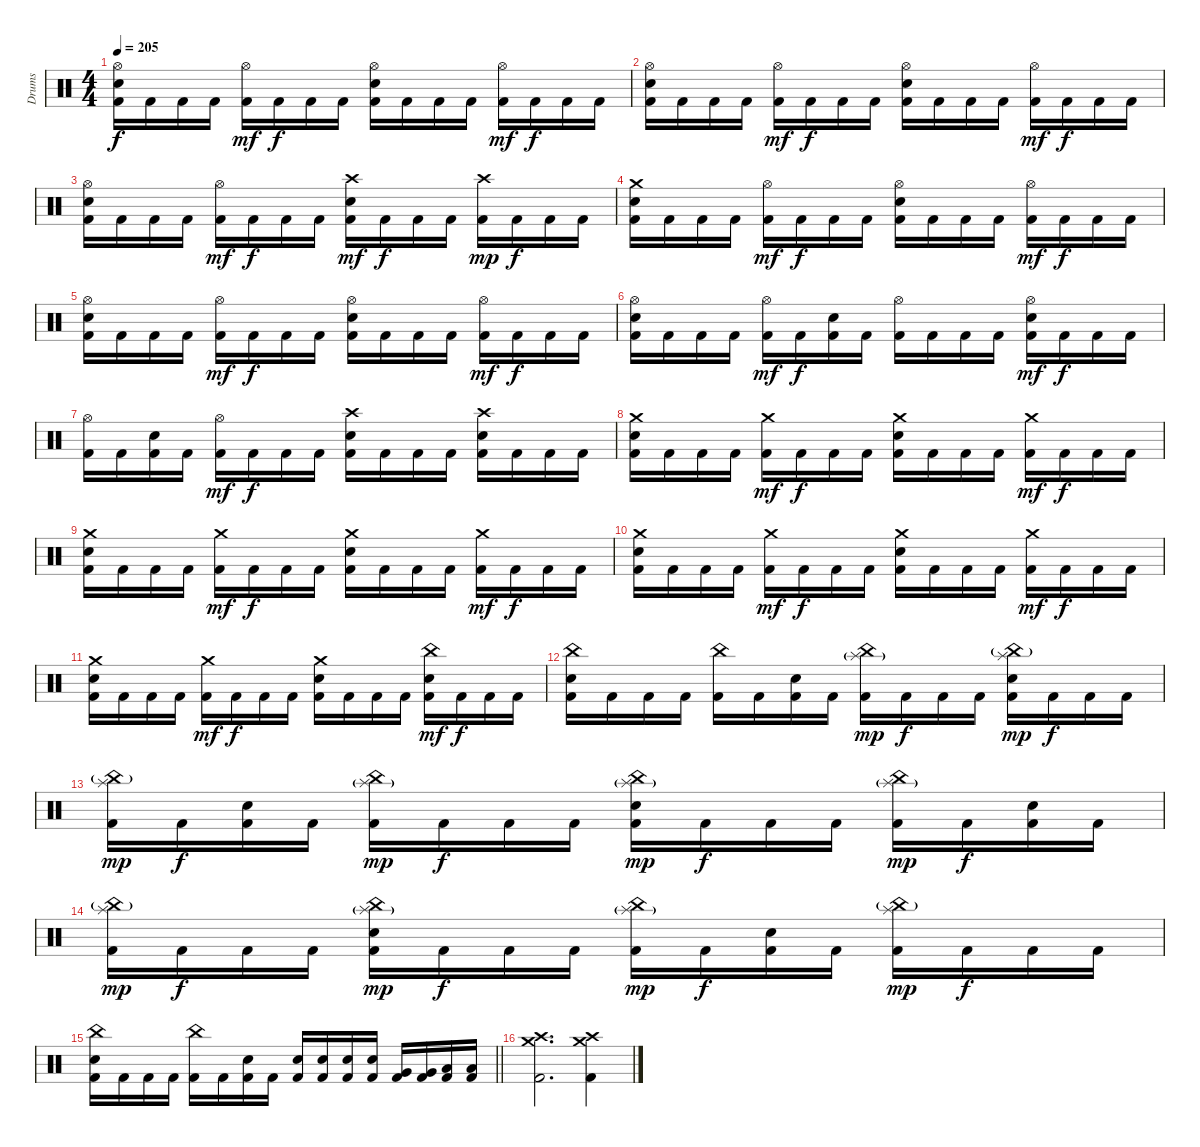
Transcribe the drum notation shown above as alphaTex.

\track ("Drums" "Drums") {instrument percussion}
\staff {score}
\articulation defaults
\ts (4 4)
\tempo 205
\clef neutral
\ks c
("Hi-Hat (open)" "Electric Snare (hit)" "Kick (hit) 2").16{dy f} "Kick (hit) 2".16 "Kick (hit) 2".16 "Kick (hit) 2".16 ("Hi-Hat (open)" "Kick (hit) 2").16{dy mf} "Kick (hit) 2".16{dy f} "Kick (hit) 2".16 "Kick (hit) 2".16 ("Hi-Hat (open)" "Electric Snare (hit)" "Kick (hit) 2").16 "Kick (hit) 2".16 "Kick (hit) 2".16 "Kick (hit) 2".16 ("Hi-Hat (open)" "Kick (hit) 2").16{dy mf} "Kick (hit) 2".16{dy f} "Kick (hit) 2".16 "Kick (hit) 2".16 |
("Hi-Hat (open)" "Electric Snare (hit)" "Kick (hit) 2").16 "Kick (hit) 2".16 "Kick (hit) 2".16 "Kick (hit) 2".16 ("Hi-Hat (open)" "Kick (hit) 2").16{dy mf} "Kick (hit) 2".16{dy f} "Kick (hit) 2".16 "Kick (hit) 2".16 ("Hi-Hat (open)" "Electric Snare (hit)" "Kick (hit) 2").16 "Kick (hit) 2".16 "Kick (hit) 2".16 "Kick (hit) 2".16 ("Hi-Hat (open)" "Kick (hit) 2").16{dy mf} "Kick (hit) 2".16{dy f} "Kick (hit) 2".16 "Kick (hit) 2".16 |
("Hi-Hat (open)" "Electric Snare (hit)" "Kick (hit) 2").16 "Kick (hit) 2".16 "Kick (hit) 2".16 "Kick (hit) 2".16 ("Hi-Hat (open)" "Kick (hit) 2").16{dy mf} "Kick (hit) 2".16{dy f} "Kick (hit) 2".16 "Kick (hit) 2".16 ("Crash high (hit)" "Electric Snare (hit)" "Kick (hit) 2").16{dy mf} "Kick (hit) 2".16{dy f} "Kick (hit) 2".16 "Kick (hit) 2".16 ("Crash high (hit)" "Kick (hit) 2").16{dy mp} "Kick (hit) 2".16{dy f} "Kick (hit) 2".16 "Kick (hit) 2".16 |
("Crash medium (hit)" "Electric Snare (hit)" "Kick (hit) 2").16 "Kick (hit) 2".16 "Kick (hit) 2".16 "Kick (hit) 2".16 ("Hi-Hat (open)" "Kick (hit) 2").16{dy mf} "Kick (hit) 2".16{dy f} "Kick (hit) 2".16 "Kick (hit) 2".16 ("Hi-Hat (open)" "Electric Snare (hit)" "Kick (hit) 2").16 "Kick (hit) 2".16 "Kick (hit) 2".16 "Kick (hit) 2".16 ("Hi-Hat (open)" "Kick (hit) 2").16{dy mf} "Kick (hit) 2".16{dy f} "Kick (hit) 2".16 "Kick (hit) 2".16 |
("Hi-Hat (open)" "Electric Snare (hit)" "Kick (hit) 2").16 "Kick (hit) 2".16 "Kick (hit) 2".16 "Kick (hit) 2".16 ("Hi-Hat (open)" "Kick (hit) 2").16{dy mf} "Kick (hit) 2".16{dy f} "Kick (hit) 2".16 "Kick (hit) 2".16 ("Hi-Hat (open)" "Electric Snare (hit)" "Kick (hit) 2").16 "Kick (hit) 2".16 "Kick (hit) 2".16 "Kick (hit) 2".16 ("Hi-Hat (open)" "Kick (hit) 2").16{dy mf} "Kick (hit) 2".16{dy f} "Kick (hit) 2".16 "Kick (hit) 2".16 |
("Hi-Hat (open)" "Electric Snare (hit)" "Kick (hit) 2").16 "Kick (hit) 2".16 "Kick (hit) 2".16 "Kick (hit) 2".16 ("Hi-Hat (open)" "Kick (hit) 2").16{dy mf} "Kick (hit) 2".16{dy f} ("Electric Snare (hit)" "Kick (hit) 2").16 "Kick (hit) 2".16 ("Hi-Hat (open)" "Kick (hit) 2").16 "Kick (hit) 2".16 "Kick (hit) 2".16 "Kick (hit) 2".16 ("Hi-Hat (open)" "Electric Snare (hit)" "Kick (hit) 2").16{dy mf} "Kick (hit) 2".16{dy f} "Kick (hit) 2".16 "Kick (hit) 2".16 |
("Hi-Hat (open)" "Kick (hit) 2").16 "Kick (hit) 2".16 ("Electric Snare (hit)" "Kick (hit) 2").16 "Kick (hit) 2".16 ("Hi-Hat (open)" "Kick (hit) 2").16{dy mf} "Kick (hit) 2".16{dy f} "Kick (hit) 2".16 "Kick (hit) 2".16 ("Crash high (hit)" "Electric Snare (hit)" "Kick (hit) 2").16 "Kick (hit) 2".16 "Kick (hit) 2".16 "Kick (hit) 2".16 ("Crash high (hit)" "Electric Snare (hit)" "Kick (hit) 2").16 "Kick (hit) 2".16 "Kick (hit) 2".16 "Kick (hit) 2".16 |
("Crash medium (hit)" "Electric Snare (hit)" "Kick (hit) 2").16 "Kick (hit) 2".16 "Kick (hit) 2".16 "Kick (hit) 2".16 ("Crash medium (hit)" "Kick (hit) 2").16{dy mf} "Kick (hit) 2".16{dy f} "Kick (hit) 2".16 "Kick (hit) 2".16 ("Crash medium (hit)" "Electric Snare (hit)" "Kick (hit) 2").16 "Kick (hit) 2".16 "Kick (hit) 2".16 "Kick (hit) 2".16 ("Crash medium (hit)" "Kick (hit) 2").16{dy mf} "Kick (hit) 2".16{dy f} "Kick (hit) 2".16 "Kick (hit) 2".16 |
("Crash medium (hit)" "Electric Snare (hit)" "Kick (hit) 2").16 "Kick (hit) 2".16 "Kick (hit) 2".16 "Kick (hit) 2".16 ("Crash medium (hit)" "Kick (hit) 2").16{dy mf} "Kick (hit) 2".16{dy f} "Kick (hit) 2".16 "Kick (hit) 2".16 ("Crash medium (hit)" "Electric Snare (hit)" "Kick (hit) 2").16 "Kick (hit) 2".16 "Kick (hit) 2".16 "Kick (hit) 2".16 ("Crash medium (hit)" "Kick (hit) 2").16{dy mf} "Kick (hit) 2".16{dy f} "Kick (hit) 2".16 "Kick (hit) 2".16 |
("Crash medium (hit)" "Electric Snare (hit)" "Kick (hit) 2").16 "Kick (hit) 2".16 "Kick (hit) 2".16 "Kick (hit) 2".16 ("Crash medium (hit)" "Kick (hit) 2").16{dy mf} "Kick (hit) 2".16{dy f} "Kick (hit) 2".16 "Kick (hit) 2".16 ("Crash medium (hit)" "Electric Snare (hit)" "Kick (hit) 2").16 "Kick (hit) 2".16 "Kick (hit) 2".16 "Kick (hit) 2".16 ("Crash medium (hit)" "Kick (hit) 2").16{dy mf} "Kick (hit) 2".16{dy f} "Kick (hit) 2".16 "Kick (hit) 2".16 |
("Crash medium (hit)" "Electric Snare (hit)" "Kick (hit) 2").16 "Kick (hit) 2".16 "Kick (hit) 2".16 "Kick (hit) 2".16 ("Crash medium (hit)" "Kick (hit) 2").16{dy mf} "Kick (hit) 2".16{dy f} "Kick (hit) 2".16 "Kick (hit) 2".16 ("Crash medium (hit)" "Electric Snare (hit)" "Kick (hit) 2").16 "Kick (hit) 2".16 "Kick (hit) 2".16 "Kick (hit) 2".16 ("China (hit)" "Electric Snare (hit)" "Kick (hit) 2").16{dy mf} "Kick (hit) 2".16{dy f} "Kick (hit) 2".16 "Kick (hit) 2".16 |
("China (hit)" "Electric Snare (hit)" "Kick (hit) 2").16 "Kick (hit) 2".16 "Kick (hit) 2".16 "Kick (hit) 2".16 ("China (hit)" "Kick (hit) 2").16 "Kick (hit) 2".16 ("Electric Snare (hit)" "Kick (hit) 2").16 "Kick (hit) 2".16 ("Splash (hit)"{g} "China (hit)" "Kick (hit) 2").16{dy mp} "Kick (hit) 2".16{dy f} "Kick (hit) 2".16 "Kick (hit) 2".16 ("Splash (hit)" "China (hit)"{g} "Electric Snare (hit)" "Kick (hit) 2").16{dy mp} "Kick (hit) 2".16{dy f} "Kick (hit) 2".16 "Kick (hit) 2".16 |
("Splash (hit)" "China (hit)"{g} "Kick (hit) 2").16{dy mp} "Kick (hit) 2".16{dy f} ("Electric Snare (hit)" "Kick (hit) 2").16 "Kick (hit) 2".16 ("Splash (hit)"{g} "China (hit)" "Kick (hit) 2").16{dy mp} "Kick (hit) 2".16{dy f} "Kick (hit) 2".16 "Kick (hit) 2".16 ("Splash (hit)"{g} "China (hit)" "Electric Snare (hit)" "Kick (hit) 2").16{dy mp} "Kick (hit) 2".16{dy f} "Kick (hit) 2".16 "Kick (hit) 2".16 ("Splash (hit)"{g} "China (hit)" "Kick (hit) 2").16{dy mp} "Kick (hit) 2".16{dy f} ("Electric Snare (hit)" "Kick (hit) 2").16 "Kick (hit) 2".16 |
("Splash (hit)" "China (hit)"{g} "Kick (hit) 2").16{dy mp} "Kick (hit) 2".16{dy f} "Kick (hit) 2".16 "Kick (hit) 2".16 ("Splash (hit)"{g} "China (hit)" "Electric Snare (hit)" "Kick (hit) 2").16{dy mp} "Kick (hit) 2".16{dy f} "Kick (hit) 2".16 "Kick (hit) 2".16 ("Splash (hit)"{g} "China (hit)" "Kick (hit) 2").16{dy mp} "Kick (hit) 2".16{dy f} ("Electric Snare (hit)" "Kick (hit) 2").16 "Kick (hit) 2".16 ("Splash (hit)" "China (hit)"{g} "Kick (hit) 2").16{dy mp} "Kick (hit) 2".16{dy f} "Kick (hit) 2".16 "Kick (hit) 2".16 |
\barLineRight lightlight
("China (hit)" "Electric Snare (hit)" "Kick (hit) 2").16 "Kick (hit) 2".16 "Kick (hit) 2".16 "Kick (hit) 2".16 ("China (hit)" "Kick (hit) 2").16 "Kick (hit) 2".16 ("Electric Snare (hit)" "Kick (hit) 2").16 "Kick (hit) 2".16 ("Electric Snare (hit)" "Kick (hit) 2").16 ("Electric Snare (hit)" "Kick (hit) 2").16 ("Electric Snare (hit)" "Kick (hit) 2").16 ("Electric Snare (hit)" "Kick (hit) 2").16 ("Very Low Tom (hit)" "Kick (hit) 2").16 ("Very Low Tom (hit)" "Kick (hit) 2").16 ("Low Floor Tom (hit)" "Kick (hit) 2").16 ("Low Floor Tom (hit)" "Kick (hit) 2").16 |
("Crash medium (hit)" "Crash high (hit)" "Kick (hit) 2").2{d} ("Crash medium (hit)" "Crash high (hit)" "Kick (hit) 2").4
